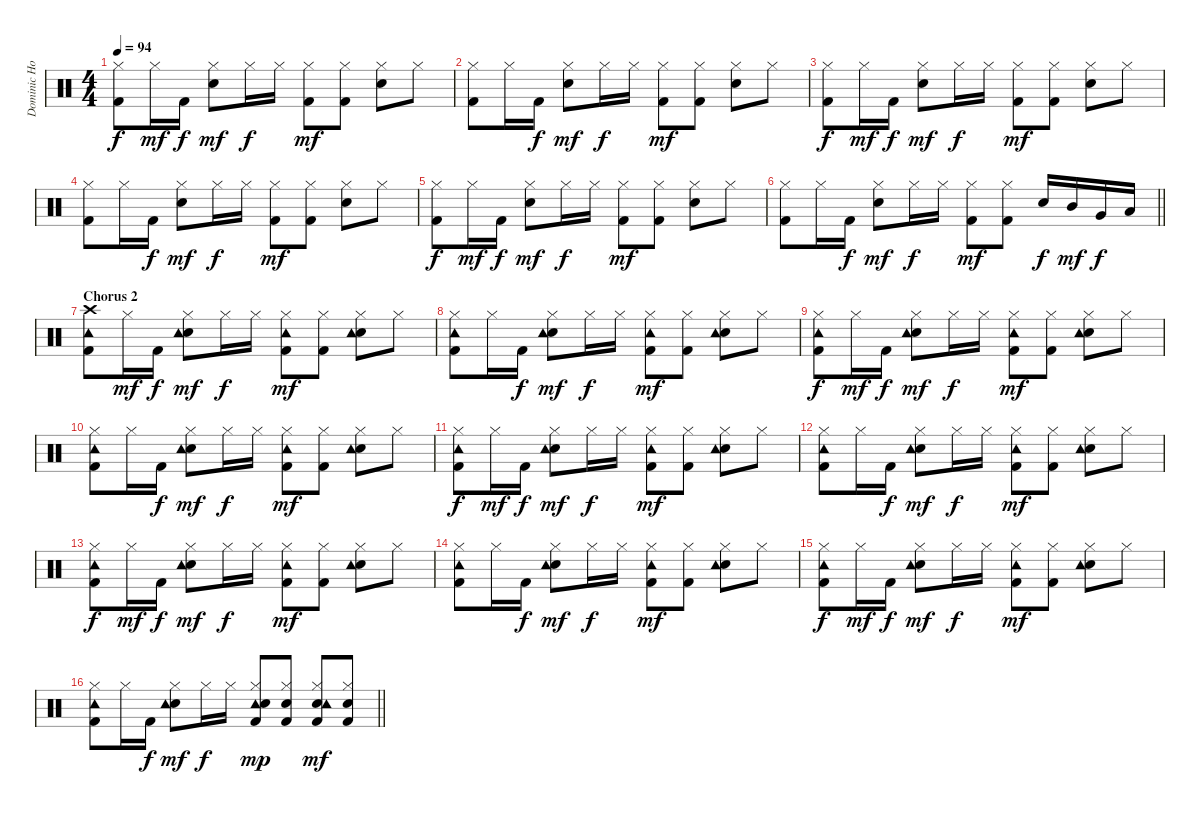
\track ("Dominic Howard - Drums" "Dominic Ho") {instrument percussion}
\staff {score}
\articulation defaults
\ts (4 4)
\tempo 94
\clef neutral
\ks c
("Kick (hit) 2" "Hi-Hat (closed)").8{dy f} "Hi-Hat (closed)".16{dy mf} "Kick (hit) 2".16{dy f} ("Hi-Hat (closed)" "Electric Snare (hit)").8{dy mf} "Hi-Hat (closed)".16{dy f} "Hi-Hat (closed)".16 ("Hi-Hat (closed)" "Kick (hit) 2").8{dy mf} ("Hi-Hat (closed)" "Kick (hit) 2").8 ("Hi-Hat (closed)" "Electric Snare (hit)").8 "Hi-Hat (closed)".8 |
("Kick (hit) 2" "Hi-Hat (closed)").8 "Hi-Hat (closed)".16 "Kick (hit) 2".16{dy f} ("Hi-Hat (closed)" "Electric Snare (hit)").8{dy mf} "Hi-Hat (closed)".16{dy f} "Hi-Hat (closed)".16 ("Hi-Hat (closed)" "Kick (hit) 2").8{dy mf} ("Hi-Hat (closed)" "Kick (hit) 2").8 ("Hi-Hat (closed)" "Electric Snare (hit)").8 "Hi-Hat (closed)".8 |
("Kick (hit) 2" "Hi-Hat (closed)").8{dy f} "Hi-Hat (closed)".16{dy mf} "Kick (hit) 2".16{dy f} ("Hi-Hat (closed)" "Electric Snare (hit)").8{dy mf} "Hi-Hat (closed)".16{dy f} "Hi-Hat (closed)".16 ("Hi-Hat (closed)" "Kick (hit) 2").8{dy mf} ("Hi-Hat (closed)" "Kick (hit) 2").8 ("Hi-Hat (closed)" "Electric Snare (hit)").8 "Hi-Hat (closed)".8 |
("Kick (hit) 2" "Hi-Hat (closed)").8 "Hi-Hat (closed)".16 "Kick (hit) 2".16{dy f} ("Hi-Hat (closed)" "Electric Snare (hit)").8{dy mf} "Hi-Hat (closed)".16{dy f} "Hi-Hat (closed)".16 ("Hi-Hat (closed)" "Kick (hit) 2").8{dy mf} ("Hi-Hat (closed)" "Kick (hit) 2").8 ("Hi-Hat (closed)" "Electric Snare (hit)").8 "Hi-Hat (closed)".8 |
("Kick (hit) 2" "Hi-Hat (closed)").8{dy f} "Hi-Hat (closed)".16{dy mf} "Kick (hit) 2".16{dy f} ("Hi-Hat (closed)" "Electric Snare (hit)").8{dy mf} "Hi-Hat (closed)".16{dy f} "Hi-Hat (closed)".16 ("Hi-Hat (closed)" "Kick (hit) 2").8{dy mf} ("Hi-Hat (closed)" "Kick (hit) 2").8 ("Hi-Hat (closed)" "Electric Snare (hit)").8 "Hi-Hat (closed)".8 |
\barLineRight lightlight
("Kick (hit) 2" "Hi-Hat (closed)").8 "Hi-Hat (closed)".16 "Kick (hit) 2".16{dy f} ("Hi-Hat (closed)" "Electric Snare (hit)").8{dy mf} "Hi-Hat (closed)".16{dy f} "Hi-Hat (closed)".16 ("Hi-Hat (closed)" "Kick (hit) 2").8{dy mf} ("Hi-Hat (closed)" "Kick (hit) 2").8 "Electric Snare (hit)".16{dy f} "Mid Tom (hit)".16{dy mf} "Very Low Tom (hit)".16{dy f} "Low Floor Tom (hit)".16 |
\section ("" "Chorus 2")
("Kick (hit) 2" "Crash high (hit)" "Tambourine (hit)").8 "Hi-Hat (closed)".16{dy mf} "Kick (hit) 2".16{dy f} ("Hi-Hat (closed)" "Electric Snare (hit)" "Tambourine (hit)").8{dy mf} "Hi-Hat (closed)".16{dy f} "Hi-Hat (closed)".16 ("Hi-Hat (closed)" "Kick (hit) 2" "Tambourine (hit)").8{dy mf} ("Hi-Hat (closed)" "Kick (hit) 2").8 ("Hi-Hat (closed)" "Electric Snare (hit)" "Tambourine (hit)").8 "Hi-Hat (closed)".8 |
("Kick (hit) 2" "Hi-Hat (closed)" "Tambourine (hit)").8 "Hi-Hat (closed)".16 "Kick (hit) 2".16{dy f} ("Hi-Hat (closed)" "Electric Snare (hit)" "Tambourine (hit)").8{dy mf} "Hi-Hat (closed)".16{dy f} "Hi-Hat (closed)".16 ("Hi-Hat (closed)" "Kick (hit) 2" "Tambourine (hit)").8{dy mf} ("Hi-Hat (closed)" "Kick (hit) 2").8 ("Hi-Hat (closed)" "Electric Snare (hit)" "Tambourine (hit)").8 "Hi-Hat (closed)".8 |
("Kick (hit) 2" "Hi-Hat (closed)" "Tambourine (hit)").8{dy f} "Hi-Hat (closed)".16{dy mf} "Kick (hit) 2".16{dy f} ("Hi-Hat (closed)" "Electric Snare (hit)" "Tambourine (hit)").8{dy mf} "Hi-Hat (closed)".16{dy f} "Hi-Hat (closed)".16 ("Hi-Hat (closed)" "Kick (hit) 2" "Tambourine (hit)").8{dy mf} ("Hi-Hat (closed)" "Kick (hit) 2").8 ("Hi-Hat (closed)" "Electric Snare (hit)" "Tambourine (hit)").8 "Hi-Hat (closed)".8 |
("Kick (hit) 2" "Hi-Hat (closed)" "Tambourine (hit)").8 "Hi-Hat (closed)".16 "Kick (hit) 2".16{dy f} ("Hi-Hat (closed)" "Electric Snare (hit)" "Tambourine (hit)").8{dy mf} "Hi-Hat (closed)".16{dy f} "Hi-Hat (closed)".16 ("Hi-Hat (closed)" "Kick (hit) 2" "Tambourine (hit)").8{dy mf} ("Hi-Hat (closed)" "Kick (hit) 2").8 ("Hi-Hat (closed)" "Electric Snare (hit)" "Tambourine (hit)").8 "Hi-Hat (closed)".8 |
("Kick (hit) 2" "Hi-Hat (closed)" "Tambourine (hit)").8{dy f} "Hi-Hat (closed)".16{dy mf} "Kick (hit) 2".16{dy f} ("Hi-Hat (closed)" "Electric Snare (hit)" "Tambourine (hit)").8{dy mf} "Hi-Hat (closed)".16{dy f} "Hi-Hat (closed)".16 ("Hi-Hat (closed)" "Kick (hit) 2" "Tambourine (hit)").8{dy mf} ("Hi-Hat (closed)" "Kick (hit) 2").8 ("Hi-Hat (closed)" "Electric Snare (hit)" "Tambourine (hit)").8 "Hi-Hat (closed)".8 |
("Kick (hit) 2" "Hi-Hat (closed)" "Tambourine (hit)").8 "Hi-Hat (closed)".16 "Kick (hit) 2".16{dy f} ("Hi-Hat (closed)" "Electric Snare (hit)" "Tambourine (hit)").8{dy mf} "Hi-Hat (closed)".16{dy f} "Hi-Hat (closed)".16 ("Hi-Hat (closed)" "Kick (hit) 2" "Tambourine (hit)").8{dy mf} ("Hi-Hat (closed)" "Kick (hit) 2").8 ("Hi-Hat (closed)" "Electric Snare (hit)" "Tambourine (hit)").8 "Hi-Hat (closed)".8 |
("Kick (hit) 2" "Hi-Hat (closed)" "Tambourine (hit)").8{dy f} "Hi-Hat (closed)".16{dy mf} "Kick (hit) 2".16{dy f} ("Hi-Hat (closed)" "Electric Snare (hit)" "Tambourine (hit)").8{dy mf} "Hi-Hat (closed)".16{dy f} "Hi-Hat (closed)".16 ("Hi-Hat (closed)" "Kick (hit) 2" "Tambourine (hit)").8{dy mf} ("Hi-Hat (closed)" "Kick (hit) 2").8 ("Hi-Hat (closed)" "Electric Snare (hit)" "Tambourine (hit)").8 "Hi-Hat (closed)".8 |
("Kick (hit) 2" "Hi-Hat (closed)" "Tambourine (hit)").8 "Hi-Hat (closed)".16 "Kick (hit) 2".16{dy f} ("Hi-Hat (closed)" "Electric Snare (hit)" "Tambourine (hit)").8{dy mf} "Hi-Hat (closed)".16{dy f} "Hi-Hat (closed)".16 ("Hi-Hat (closed)" "Kick (hit) 2" "Tambourine (hit)").8{dy mf} ("Hi-Hat (closed)" "Kick (hit) 2").8 ("Hi-Hat (closed)" "Electric Snare (hit)" "Tambourine (hit)").8 "Hi-Hat (closed)".8 |
("Kick (hit) 2" "Hi-Hat (closed)" "Tambourine (hit)").8{dy f} "Hi-Hat (closed)".16{dy mf} "Kick (hit) 2".16{dy f} ("Hi-Hat (closed)" "Electric Snare (hit)" "Tambourine (hit)").8{dy mf} "Hi-Hat (closed)".16{dy f} "Hi-Hat (closed)".16 ("Hi-Hat (closed)" "Kick (hit) 2" "Tambourine (hit)").8{dy mf} ("Hi-Hat (closed)" "Kick (hit) 2").8 ("Hi-Hat (closed)" "Electric Snare (hit)" "Tambourine (hit)").8 "Hi-Hat (closed)".8 |
\barLineRight lightlight
("Kick (hit) 2" "Hi-Hat (closed)" "Tambourine (hit)").8 "Hi-Hat (closed)".16 "Kick (hit) 2".16{dy f} ("Hi-Hat (closed)" "Electric Snare (hit)" "Tambourine (hit)").8{dy mf} "Hi-Hat (closed)".16{dy f} "Hi-Hat (closed)".16 ("Hi-Hat (closed)" "Kick (hit) 2" "Tambourine (hit)" "Electric Snare (hit)").8{dy mp} ("Hi-Hat (closed)" "Kick (hit) 2" "Electric Snare (hit)").8 ("Hi-Hat (closed)" "Electric Snare (hit)" "Tambourine (hit)" "Kick (hit) 2").8{dy mf} ("Hi-Hat (closed)" "Electric Snare (hit)" "Kick (hit) 2").8
